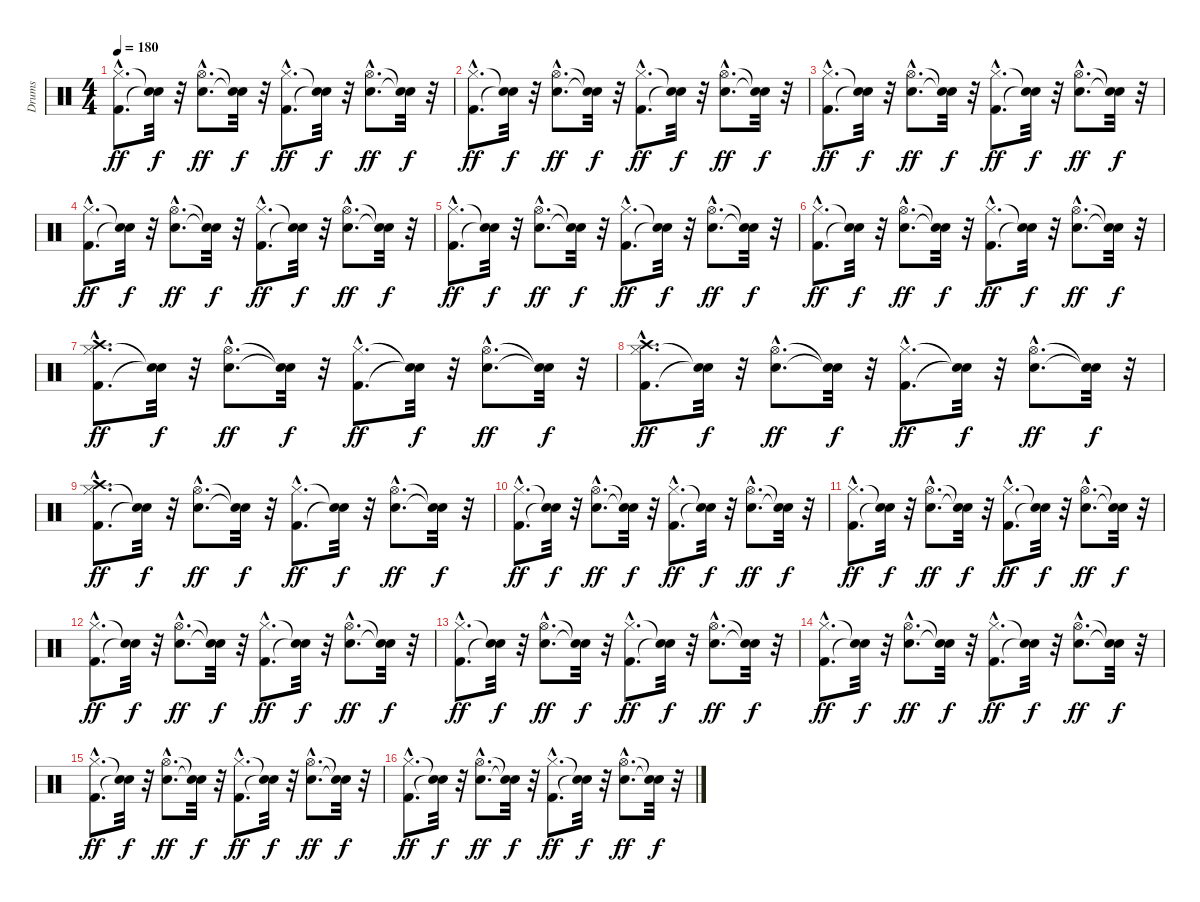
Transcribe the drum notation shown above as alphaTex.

\track ("Drums" "Drums") {instrument percussion}
\staff {score}
\articulation defaults
\ts (4 4)
\tempo 180
\clef neutral
\ks c
("Kick (hit) 2"{hac} "Hi-Hat (closed)"{hac}).8{d dy ff} ("Snare (hit)"{t} "Snare (hit)"{t}).32{dy f} r.32 ("Snare (hit) 2"{hac} "Hi-Hat (open)"{hac}).8{d dy ff} ("Snare (hit)"{t} "Snare (hit)"{t}).32{dy f} r.32 ("Kick (hit) 2"{hac} "Hi-Hat (closed)"{hac}).8{d dy ff} ("Snare (hit)"{t} "Snare (hit)"{t}).32{dy f} r.32 ("Snare (hit) 2"{hac} "Hi-Hat (open)"{hac}).8{d dy ff} ("Snare (hit)"{t} "Snare (hit)"{t}).32{dy f} r.32 |
("Kick (hit) 2"{hac} "Hi-Hat (closed)"{hac}).8{d dy ff} ("Snare (hit)"{t} "Snare (hit)"{t}).32{dy f} r.32 ("Snare (hit) 2"{hac} "Hi-Hat (open)"{hac}).8{d dy ff} ("Snare (hit)"{t} "Snare (hit)"{t}).32{dy f} r.32 ("Kick (hit) 2"{hac} "Hi-Hat (closed)"{hac}).8{d dy ff} ("Snare (hit)"{t} "Snare (hit)"{t}).32{dy f} r.32 ("Snare (hit) 2"{hac} "Hi-Hat (open)"{hac}).8{d dy ff} ("Snare (hit)"{t} "Snare (hit)"{t}).32{dy f} r.32 |
("Kick (hit) 2"{hac} "Hi-Hat (closed)"{hac}).8{d dy ff} ("Snare (hit)"{t} "Snare (hit)"{t}).32{dy f} r.32 ("Snare (hit) 2"{hac} "Hi-Hat (open)"{hac}).8{d dy ff} ("Snare (hit)"{t} "Snare (hit)"{t}).32{dy f} r.32 ("Kick (hit) 2"{hac} "Hi-Hat (closed)"{hac}).8{d dy ff} ("Snare (hit)"{t} "Snare (hit)"{t}).32{dy f} r.32 ("Snare (hit) 2"{hac} "Hi-Hat (open)"{hac}).8{d dy ff} ("Snare (hit)"{t} "Snare (hit)"{t}).32{dy f} r.32 |
("Kick (hit) 2"{hac} "Hi-Hat (closed)"{hac}).8{d dy ff} ("Snare (hit)"{t} "Snare (hit)"{t}).32{dy f} r.32 ("Snare (hit) 2"{hac} "Hi-Hat (open)"{hac}).8{d dy ff} ("Snare (hit)"{t} "Snare (hit)"{t}).32{dy f} r.32 ("Kick (hit) 2"{hac} "Hi-Hat (closed)"{hac}).8{d dy ff} ("Snare (hit)"{t} "Snare (hit)"{t}).32{dy f} r.32 ("Snare (hit) 2"{hac} "Hi-Hat (open)"{hac}).8{d dy ff} ("Snare (hit)"{t} "Snare (hit)"{t}).32{dy f} r.32 |
("Kick (hit) 2"{hac} "Hi-Hat (closed)"{hac}).8{d dy ff} ("Snare (hit)"{t} "Snare (hit)"{t}).32{dy f} r.32 ("Snare (hit) 2"{hac} "Hi-Hat (open)"{hac}).8{d dy ff} ("Snare (hit)"{t} "Snare (hit)"{t}).32{dy f} r.32 ("Kick (hit) 2"{hac} "Hi-Hat (closed)"{hac}).8{d dy ff} ("Snare (hit)"{t} "Snare (hit)"{t}).32{dy f} r.32 ("Snare (hit) 2"{hac} "Hi-Hat (open)"{hac}).8{d dy ff} ("Snare (hit)"{t} "Snare (hit)"{t}).32{dy f} r.32 |
("Kick (hit) 2"{hac} "Hi-Hat (closed)"{hac}).8{d dy ff} ("Snare (hit)"{t} "Snare (hit)"{t}).32{dy f} r.32 ("Snare (hit) 2"{hac} "Hi-Hat (open)"{hac}).8{d dy ff} ("Snare (hit)"{t} "Snare (hit)"{t}).32{dy f} r.32 ("Kick (hit) 2"{hac} "Hi-Hat (closed)"{hac}).8{d dy ff} ("Snare (hit)"{t} "Snare (hit)"{t}).32{dy f} r.32 ("Snare (hit) 2"{hac} "Hi-Hat (open)"{hac}).8{d dy ff} ("Snare (hit)"{t} "Snare (hit)"{t}).32{dy f} r.32 |
("Kick (hit) 2"{hac} "Hi-Hat (closed)"{hac} "Crash high (hit)"{hac}).8{d dy ff} ("Snare (hit)"{t} "Snare (hit)"{t}).32{dy f} r.32 ("Snare (hit) 2"{hac} "Hi-Hat (open)"{hac}).8{d dy ff} ("Snare (hit)"{t} "Snare (hit)"{t}).32{dy f} r.32 ("Kick (hit) 2"{hac} "Hi-Hat (closed)"{hac}).8{d dy ff} ("Snare (hit)"{t} "Snare (hit)"{t}).32{dy f} r.32 ("Snare (hit) 2"{hac} "Hi-Hat (open)"{hac}).8{d dy ff} ("Snare (hit)"{t} "Snare (hit)"{t}).32{dy f} r.32 |
("Kick (hit) 2"{hac} "Hi-Hat (closed)"{hac} "Crash high (hit)"{hac}).8{d dy ff} ("Snare (hit)"{t} "Snare (hit)"{t}).32{dy f} r.32 ("Snare (hit) 2"{hac} "Hi-Hat (open)"{hac}).8{d dy ff} ("Snare (hit)"{t} "Snare (hit)"{t}).32{dy f} r.32 ("Kick (hit) 2"{hac} "Hi-Hat (closed)"{hac}).8{d dy ff} ("Snare (hit)"{t} "Snare (hit)"{t}).32{dy f} r.32 ("Snare (hit) 2"{hac} "Hi-Hat (open)"{hac}).8{d dy ff} ("Snare (hit)"{t} "Snare (hit)"{t}).32{dy f} r.32 |
("Kick (hit) 2"{hac} "Hi-Hat (closed)"{hac} "Crash high (hit)"{hac}).8{d dy ff} ("Snare (hit)"{t} "Snare (hit)"{t}).32{dy f} r.32 ("Snare (hit) 2"{hac} "Hi-Hat (open)"{hac}).8{d dy ff} ("Snare (hit)"{t} "Snare (hit)"{t}).32{dy f} r.32 ("Kick (hit) 2"{hac} "Hi-Hat (closed)"{hac}).8{d dy ff} ("Snare (hit)"{t} "Snare (hit)"{t}).32{dy f} r.32 ("Snare (hit) 2"{hac} "Hi-Hat (open)"{hac}).8{d dy ff} ("Snare (hit)"{t} "Snare (hit)"{t}).32{dy f} r.32 |
("Kick (hit) 2"{hac} "Hi-Hat (closed)"{hac}).8{d dy ff} ("Snare (hit)"{t} "Snare (hit)"{t}).32{dy f} r.32 ("Snare (hit) 2"{hac} "Hi-Hat (open)"{hac}).8{d dy ff} ("Snare (hit)"{t} "Snare (hit)"{t}).32{dy f} r.32 ("Kick (hit) 2"{hac} "Hi-Hat (closed)"{hac}).8{d dy ff} ("Snare (hit)"{t} "Snare (hit)"{t}).32{dy f} r.32 ("Snare (hit) 2"{hac} "Hi-Hat (open)"{hac}).8{d dy ff} ("Snare (hit)"{t} "Snare (hit)"{t}).32{dy f} r.32 |
("Kick (hit) 2"{hac} "Hi-Hat (closed)"{hac}).8{d dy ff} ("Snare (hit)"{t} "Snare (hit)"{t}).32{dy f} r.32 ("Snare (hit) 2"{hac} "Hi-Hat (open)"{hac}).8{d dy ff} ("Snare (hit)"{t} "Snare (hit)"{t}).32{dy f} r.32 ("Kick (hit) 2"{hac} "Hi-Hat (closed)"{hac}).8{d dy ff} ("Snare (hit)"{t} "Snare (hit)"{t}).32{dy f} r.32 ("Snare (hit) 2"{hac} "Hi-Hat (open)"{hac}).8{d dy ff} ("Snare (hit)"{t} "Snare (hit)"{t}).32{dy f} r.32 |
("Kick (hit) 2"{hac} "Hi-Hat (closed)"{hac}).8{d dy ff} ("Snare (hit)"{t} "Snare (hit)"{t}).32{dy f} r.32 ("Snare (hit) 2"{hac} "Hi-Hat (open)"{hac}).8{d dy ff} ("Snare (hit)"{t} "Snare (hit)"{t}).32{dy f} r.32 ("Kick (hit) 2"{hac} "Hi-Hat (closed)"{hac}).8{d dy ff} ("Snare (hit)"{t} "Snare (hit)"{t}).32{dy f} r.32 ("Snare (hit) 2"{hac} "Hi-Hat (open)"{hac}).8{d dy ff} ("Snare (hit)"{t} "Snare (hit)"{t}).32{dy f} r.32 |
("Kick (hit) 2"{hac} "Hi-Hat (closed)"{hac}).8{d dy ff} ("Snare (hit)"{t} "Snare (hit)"{t}).32{dy f} r.32 ("Snare (hit) 2"{hac} "Hi-Hat (open)"{hac}).8{d dy ff} ("Snare (hit)"{t} "Snare (hit)"{t}).32{dy f} r.32 ("Kick (hit) 2"{hac} "Hi-Hat (closed)"{hac}).8{d dy ff} ("Snare (hit)"{t} "Snare (hit)"{t}).32{dy f} r.32 ("Snare (hit) 2"{hac} "Hi-Hat (open)"{hac}).8{d dy ff} ("Snare (hit)"{t} "Snare (hit)"{t}).32{dy f} r.32 |
("Kick (hit) 2"{hac} "Hi-Hat (closed)"{hac}).8{d dy ff} ("Snare (hit)"{t} "Snare (hit)"{t}).32{dy f} r.32 ("Snare (hit) 2"{hac} "Hi-Hat (open)"{hac}).8{d dy ff} ("Snare (hit)"{t} "Snare (hit)"{t}).32{dy f} r.32 ("Kick (hit) 2"{hac} "Hi-Hat (closed)"{hac}).8{d dy ff} ("Snare (hit)"{t} "Snare (hit)"{t}).32{dy f} r.32 ("Snare (hit) 2"{hac} "Hi-Hat (open)"{hac}).8{d dy ff} ("Snare (hit)"{t} "Snare (hit)"{t}).32{dy f} r.32 |
("Kick (hit) 2"{hac} "Hi-Hat (closed)"{hac}).8{d dy ff} ("Snare (hit)"{t} "Snare (hit)"{t}).32{dy f} r.32 ("Snare (hit) 2"{hac} "Hi-Hat (open)"{hac}).8{d dy ff} ("Snare (hit)"{t} "Snare (hit)"{t}).32{dy f} r.32 ("Kick (hit) 2"{hac} "Hi-Hat (closed)"{hac}).8{d dy ff} ("Snare (hit)"{t} "Snare (hit)"{t}).32{dy f} r.32 ("Snare (hit) 2"{hac} "Hi-Hat (open)"{hac}).8{d dy ff} ("Snare (hit)"{t} "Snare (hit)"{t}).32{dy f} r.32 |
("Kick (hit) 2"{hac} "Hi-Hat (closed)"{hac}).8{d dy ff} ("Snare (hit)"{t} "Snare (hit)"{t}).32{dy f} r.32 ("Snare (hit) 2"{hac} "Hi-Hat (open)"{hac}).8{d dy ff} ("Snare (hit)"{t} "Snare (hit)"{t}).32{dy f} r.32 ("Kick (hit) 2"{hac} "Hi-Hat (closed)"{hac}).8{d dy ff} ("Snare (hit)"{t} "Snare (hit)"{t}).32{dy f} r.32 ("Snare (hit) 2"{hac} "Hi-Hat (open)"{hac}).8{d dy ff} ("Snare (hit)"{t} "Snare (hit)"{t}).32{dy f} r.32
